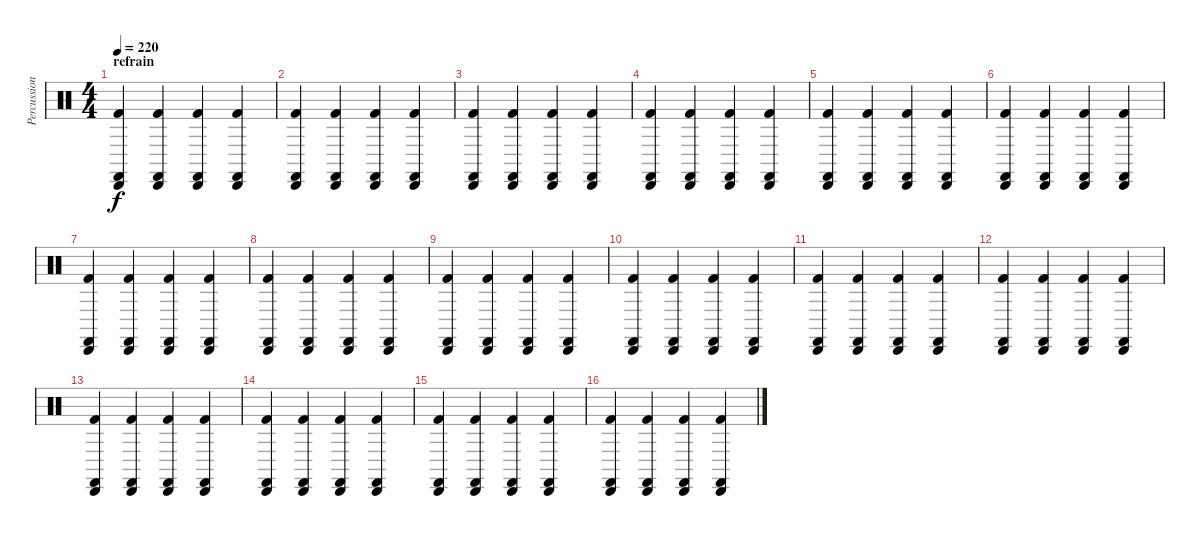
\track ("Percussions" "Percussion") {instrument percussion}
\staff {score}
\articulation defaults
\ts (4 4)
\section ("" "refrain")
\tempo 220
\clef neutral
\ks c
("Kick (hit) 2" "Cabasa (hit)" "Castanets (hit)").4{dy f} ("Kick (hit) 2" "Cabasa (hit)" "Castanets (hit)").4 ("Kick (hit) 2" "Cabasa (hit)" "Castanets (hit)").4 ("Kick (hit) 2" "Cabasa (hit)" "Castanets (hit)").4 |
("Kick (hit) 2" "Cabasa (hit)" "Castanets (hit)").4 ("Kick (hit) 2" "Cabasa (hit)" "Castanets (hit)").4 ("Kick (hit) 2" "Cabasa (hit)" "Castanets (hit)").4 ("Kick (hit) 2" "Cabasa (hit)" "Castanets (hit)").4 |
("Kick (hit) 2" "Cabasa (hit)" "Castanets (hit)").4 ("Kick (hit) 2" "Cabasa (hit)" "Castanets (hit)").4 ("Kick (hit) 2" "Cabasa (hit)" "Castanets (hit)").4 ("Kick (hit) 2" "Cabasa (hit)" "Castanets (hit)").4 |
("Kick (hit) 2" "Cabasa (hit)" "Castanets (hit)").4 ("Kick (hit) 2" "Cabasa (hit)" "Castanets (hit)").4 ("Kick (hit) 2" "Cabasa (hit)" "Castanets (hit)").4 ("Kick (hit) 2" "Cabasa (hit)" "Castanets (hit)").4 |
("Kick (hit) 2" "Cabasa (hit)" "Castanets (hit)").4 ("Kick (hit) 2" "Cabasa (hit)" "Castanets (hit)").4 ("Kick (hit) 2" "Cabasa (hit)" "Castanets (hit)").4 ("Kick (hit) 2" "Cabasa (hit)" "Castanets (hit)").4 |
("Kick (hit) 2" "Cabasa (hit)" "Castanets (hit)").4 ("Kick (hit) 2" "Cabasa (hit)" "Castanets (hit)").4 ("Kick (hit) 2" "Cabasa (hit)" "Castanets (hit)").4 ("Kick (hit) 2" "Cabasa (hit)" "Castanets (hit)").4 |
("Kick (hit) 2" "Cabasa (hit)" "Castanets (hit)").4 ("Kick (hit) 2" "Cabasa (hit)" "Castanets (hit)").4 ("Kick (hit) 2" "Cabasa (hit)" "Castanets (hit)").4 ("Kick (hit) 2" "Cabasa (hit)" "Castanets (hit)").4 |
("Kick (hit) 2" "Cabasa (hit)" "Castanets (hit)").4 ("Kick (hit) 2" "Cabasa (hit)" "Castanets (hit)").4 ("Kick (hit) 2" "Cabasa (hit)" "Castanets (hit)").4 ("Kick (hit) 2" "Cabasa (hit)" "Castanets (hit)").4 |
("Kick (hit) 2" "Cabasa (hit)" "Castanets (hit)").4 ("Kick (hit) 2" "Cabasa (hit)" "Castanets (hit)").4 ("Kick (hit) 2" "Cabasa (hit)" "Castanets (hit)").4 ("Kick (hit) 2" "Cabasa (hit)" "Castanets (hit)").4 |
("Kick (hit) 2" "Cabasa (hit)" "Castanets (hit)").4 ("Kick (hit) 2" "Cabasa (hit)" "Castanets (hit)").4 ("Kick (hit) 2" "Cabasa (hit)" "Castanets (hit)").4 ("Kick (hit) 2" "Cabasa (hit)" "Castanets (hit)").4 |
("Kick (hit) 2" "Cabasa (hit)" "Castanets (hit)").4 ("Kick (hit) 2" "Cabasa (hit)" "Castanets (hit)").4 ("Kick (hit) 2" "Cabasa (hit)" "Castanets (hit)").4 ("Kick (hit) 2" "Cabasa (hit)" "Castanets (hit)").4 |
("Kick (hit) 2" "Cabasa (hit)" "Castanets (hit)").4 ("Kick (hit) 2" "Cabasa (hit)" "Castanets (hit)").4 ("Kick (hit) 2" "Cabasa (hit)" "Castanets (hit)").4 ("Kick (hit) 2" "Cabasa (hit)" "Castanets (hit)").4 |
("Kick (hit) 2" "Cabasa (hit)" "Castanets (hit)").4 ("Kick (hit) 2" "Cabasa (hit)" "Castanets (hit)").4 ("Kick (hit) 2" "Cabasa (hit)" "Castanets (hit)").4 ("Kick (hit) 2" "Cabasa (hit)" "Castanets (hit)").4 |
("Kick (hit) 2" "Cabasa (hit)" "Castanets (hit)").4 ("Kick (hit) 2" "Cabasa (hit)" "Castanets (hit)").4 ("Kick (hit) 2" "Cabasa (hit)" "Castanets (hit)").4 ("Kick (hit) 2" "Cabasa (hit)" "Castanets (hit)").4 |
("Kick (hit) 2" "Cabasa (hit)" "Castanets (hit)").4 ("Kick (hit) 2" "Cabasa (hit)" "Castanets (hit)").4 ("Kick (hit) 2" "Cabasa (hit)" "Castanets (hit)").4 ("Kick (hit) 2" "Cabasa (hit)" "Castanets (hit)").4 |
("Kick (hit) 2" "Cabasa (hit)" "Castanets (hit)").4 ("Kick (hit) 2" "Cabasa (hit)" "Castanets (hit)").4 ("Kick (hit) 2" "Cabasa (hit)" "Castanets (hit)").4 ("Kick (hit) 2" "Cabasa (hit)" "Castanets (hit)").4
